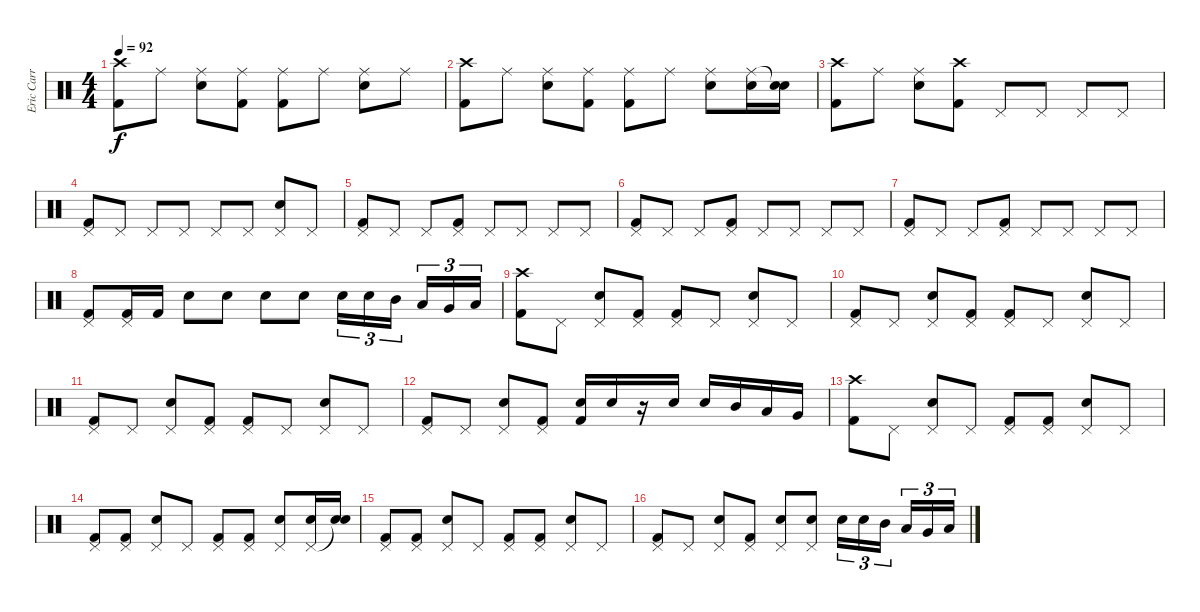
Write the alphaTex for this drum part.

\track ("Eric Carr" "Eric Carr") {instrument percussion}
\staff {score}
\articulation defaults
\ts (4 4)
\tempo 92
\clef neutral
\ks c
("Kick (hit) 2" "Crash high (hit)").8{dy f} "Ride (middle)".8 ("Snare (hit) 2" "Ride (middle)").8 ("Kick (hit) 2" "Ride (middle)").8 ("Kick (hit) 2" "Ride (middle)").8 "Ride (middle)".8 ("Snare (hit) 2" "Ride (middle)").8 "Ride (middle)".8 |
("Kick (hit) 2" "Crash high (hit)").8 "Ride (middle)".8 ("Snare (hit) 2" "Ride (middle)").8 ("Kick (hit) 2" "Ride (middle)").8 ("Kick (hit) 2" "Ride (middle)").8 "Ride (middle)".8 ("Snare (hit) 2" "Ride (middle)").8 ("Snare (hit) 2" "Ride (middle)").16 ("Snare (hit) 2" "Snare (hit)"{t}).16 |
("Kick (hit) 2" "Crash high (hit)").8 "Ride (middle)".8 ("Snare (hit) 2" "Ride (middle)").8 ("Kick (hit) 2" "Crash high (hit)").8 "Pedal Hi-Hat (hit)".8 "Pedal Hi-Hat (hit)".8 "Pedal Hi-Hat (hit)".8 "Pedal Hi-Hat (hit)".8 |
("Kick (hit) 2" "Pedal Hi-Hat (hit)").8 "Pedal Hi-Hat (hit)".8 "Pedal Hi-Hat (hit)".8 "Pedal Hi-Hat (hit)".8 "Pedal Hi-Hat (hit)".8 "Pedal Hi-Hat (hit)".8 ("Snare (hit) 2" "Pedal Hi-Hat (hit)").8 "Pedal Hi-Hat (hit)".8 |
("Kick (hit) 2" "Pedal Hi-Hat (hit)").8 "Pedal Hi-Hat (hit)".8 "Pedal Hi-Hat (hit)".8 ("Kick (hit) 2" "Pedal Hi-Hat (hit)").8 "Pedal Hi-Hat (hit)".8 "Pedal Hi-Hat (hit)".8 "Pedal Hi-Hat (hit)".8 "Pedal Hi-Hat (hit)".8 |
("Kick (hit) 2" "Pedal Hi-Hat (hit)").8 "Pedal Hi-Hat (hit)".8 "Pedal Hi-Hat (hit)".8 ("Kick (hit) 2" "Pedal Hi-Hat (hit)").8 "Pedal Hi-Hat (hit)".8 "Pedal Hi-Hat (hit)".8 "Pedal Hi-Hat (hit)".8 "Pedal Hi-Hat (hit)".8 |
("Kick (hit) 2" "Pedal Hi-Hat (hit)").8 "Pedal Hi-Hat (hit)".8 "Pedal Hi-Hat (hit)".8 ("Kick (hit) 2" "Pedal Hi-Hat (hit)").8 "Pedal Hi-Hat (hit)".8 "Pedal Hi-Hat (hit)".8 "Pedal Hi-Hat (hit)".8 "Pedal Hi-Hat (hit)".8 |
("Kick (hit) 2" "Pedal Hi-Hat (hit)").8 ("Kick (hit) 2" "Pedal Hi-Hat (hit)").16 "Kick (hit) 2".16 "Snare (hit) 2".8 "Snare (hit) 2".8 "Snare (hit) 2".8 "Snare (hit) 2".8 "Snare (hit) 2".16{tu (3 2)} "Snare (hit) 2".16{tu (3 2)} "Mid Tom (hit)".16{tu (3 2)} "Low Tom (hit)".16{tu (3 2)} "Very Low Tom (hit)".16{tu (3 2)} "Low Floor Tom (hit)".16{tu (3 2)} |
("Kick (hit) 2" "Crash high (hit)").8 "Pedal Hi-Hat (hit)".8 ("Snare (hit) 2" "Pedal Hi-Hat (hit)").8 ("Kick (hit) 2" "Pedal Hi-Hat (hit)").8 ("Kick (hit) 2" "Pedal Hi-Hat (hit)").8 "Pedal Hi-Hat (hit)".8 ("Snare (hit) 2" "Pedal Hi-Hat (hit)").8 "Pedal Hi-Hat (hit)".8 |
("Kick (hit) 2" "Pedal Hi-Hat (hit)").8 "Pedal Hi-Hat (hit)".8 ("Snare (hit) 2" "Pedal Hi-Hat (hit)").8 ("Kick (hit) 2" "Pedal Hi-Hat (hit)").8 ("Kick (hit) 2" "Pedal Hi-Hat (hit)").8 "Pedal Hi-Hat (hit)".8 ("Snare (hit) 2" "Pedal Hi-Hat (hit)").8 "Pedal Hi-Hat (hit)".8 |
("Kick (hit) 2" "Pedal Hi-Hat (hit)").8 "Pedal Hi-Hat (hit)".8 ("Snare (hit) 2" "Pedal Hi-Hat (hit)").8 ("Kick (hit) 2" "Pedal Hi-Hat (hit)").8 ("Kick (hit) 2" "Pedal Hi-Hat (hit)").8 "Pedal Hi-Hat (hit)".8 ("Snare (hit) 2" "Pedal Hi-Hat (hit)").8 "Pedal Hi-Hat (hit)".8 |
("Kick (hit) 2" "Pedal Hi-Hat (hit)").8 "Pedal Hi-Hat (hit)".8 ("Snare (hit) 2" "Pedal Hi-Hat (hit)").8 ("Kick (hit) 2" "Pedal Hi-Hat (hit)").8 ("Kick (hit) 2" "Snare (hit) 2").16 "Snare (hit) 2".16 r.16 "Snare (hit) 2".16 "Snare (hit) 2".16 "Mid Tom (hit)".16 "Low Tom (hit)".16 "Very Low Tom (hit)".16 |
("Kick (hit) 2" "Crash high (hit)").8 "Pedal Hi-Hat (hit)".8 ("Snare (hit) 2" "Pedal Hi-Hat (hit)").8 "Pedal Hi-Hat (hit)".8 ("Kick (hit) 2" "Pedal Hi-Hat (hit)").8 ("Kick (hit) 2" "Pedal Hi-Hat (hit)").8 ("Snare (hit) 2" "Pedal Hi-Hat (hit)").8 "Pedal Hi-Hat (hit)".8 |
("Kick (hit) 2" "Pedal Hi-Hat (hit)").8 ("Kick (hit) 2" "Pedal Hi-Hat (hit)").8 ("Snare (hit) 2" "Pedal Hi-Hat (hit)").8 "Pedal Hi-Hat (hit)".8 ("Kick (hit) 2" "Pedal Hi-Hat (hit)").8 ("Kick (hit) 2" "Pedal Hi-Hat (hit)").8 ("Snare (hit) 2" "Pedal Hi-Hat (hit)").8 ("Snare (hit) 2" "Pedal Hi-Hat (hit)").16 ("Snare (hit) 2" "Snare (hit)"{t}).16 |
("Kick (hit) 2" "Pedal Hi-Hat (hit)").8 ("Kick (hit) 2" "Pedal Hi-Hat (hit)").8 ("Snare (hit) 2" "Pedal Hi-Hat (hit)").8 "Pedal Hi-Hat (hit)".8 ("Kick (hit) 2" "Pedal Hi-Hat (hit)").8 ("Kick (hit) 2" "Pedal Hi-Hat (hit)").8 ("Snare (hit) 2" "Pedal Hi-Hat (hit)").8 "Pedal Hi-Hat (hit)".8 |
("Kick (hit) 2" "Pedal Hi-Hat (hit)").8 "Pedal Hi-Hat (hit)".8 ("Snare (hit) 2" "Pedal Hi-Hat (hit)").8 ("Kick (hit) 2" "Pedal Hi-Hat (hit)").8 ("Snare (hit) 2" "Pedal Hi-Hat (hit)").8 ("Snare (hit) 2" "Pedal Hi-Hat (hit)").8 "Snare (hit) 2".16{tu (3 2)} "Snare (hit) 2".16{tu (3 2)} "Mid Tom (hit)".16{tu (3 2)} "Low Tom (hit)".16{tu (3 2)} "Very Low Tom (hit)".16{tu (3 2)} "Low Floor Tom (hit)".16{tu (3 2)}
